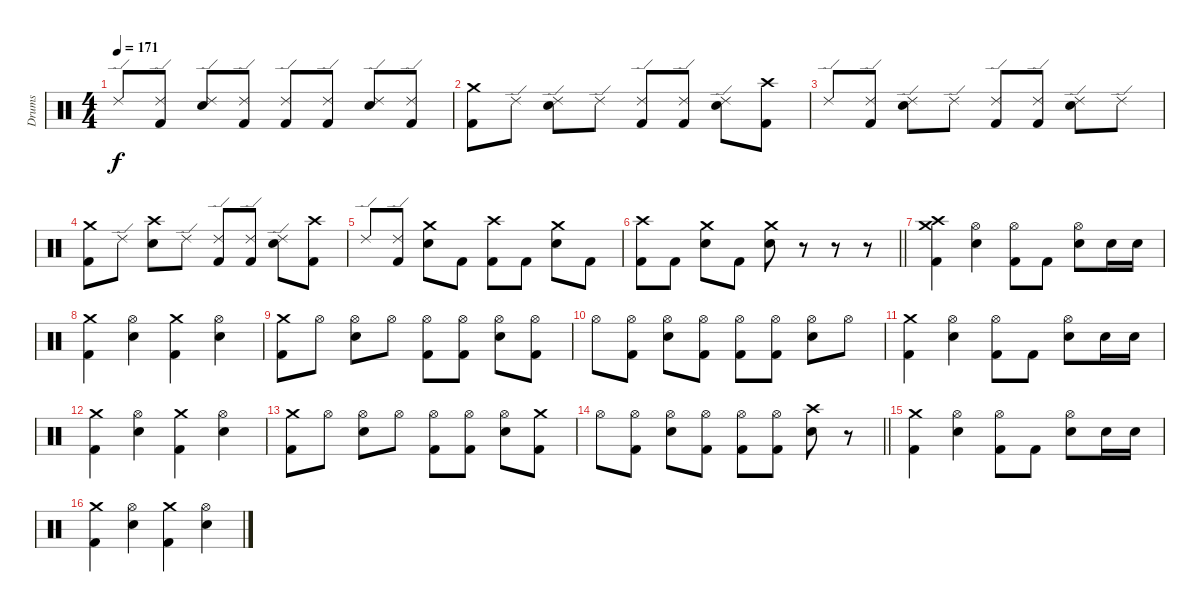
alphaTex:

\track ("Drums" "Drums") {instrument percussion}
\staff {score}
\articulation defaults
\ts (4 4)
\tempo 171
\clef neutral
\ks c "Ride (edge) 2".8{dy f}
("Ride (edge) 2" "Kick (hit) 2").8 ("Ride (edge) 2" "Electric Snare (hit)").8 ("Ride (edge) 2" "Kick (hit) 2").8 ("Ride (edge) 2" "Kick (hit) 2").8 ("Ride (edge) 2" "Kick (hit) 2").8 ("Ride (edge) 2" "Electric Snare (hit)").8 ("Ride (edge) 2" "Kick (hit) 2").8 |
("Crash medium (hit)" "Kick (hit) 2").8 "Ride (edge) 2".8 ("Ride (edge) 2" "Electric Snare (hit)").8 "Ride (edge) 2".8 ("Ride (edge) 2" "Kick (hit) 2").8 ("Ride (edge) 2" "Kick (hit) 2").8 ("Ride (edge) 2" "Electric Snare (hit)").8 ("Crash high (hit)" "Kick (hit) 2").8 |
"Ride (edge) 2".8 ("Ride (edge) 2" "Kick (hit) 2").8 ("Ride (edge) 2" "Electric Snare (hit)").8 "Ride (edge) 2".8 ("Ride (edge) 2" "Kick (hit) 2").8 ("Ride (edge) 2" "Kick (hit) 2").8 ("Ride (edge) 2" "Electric Snare (hit)").8 "Ride (edge) 2".8 |
("Crash medium (hit)" "Kick (hit) 2").8 "Ride (edge) 2".8 ("Crash high (hit)" "Electric Snare (hit)").8 "Ride (edge) 2".8 ("Ride (edge) 2" "Kick (hit) 2").8 ("Ride (edge) 2" "Kick (hit) 2").8 ("Ride (edge) 2" "Electric Snare (hit)").8 ("Crash high (hit)" "Kick (hit) 2").8 |
"Ride (edge) 2".8 ("Ride (edge) 2" "Kick (hit) 2").8 ("Crash medium (hit)" "Electric Snare (hit)").8 "Kick (hit) 2".8 ("Crash high (hit)" "Kick (hit) 2").8 "Kick (hit) 2".8 ("Crash medium (hit)" "Electric Snare (hit)").8 "Kick (hit) 2".8 |
\barLineRight lightlight
("Crash high (hit)" "Kick (hit) 2").8 "Kick (hit) 2".8 ("Crash medium (hit)" "Electric Snare (hit)").8 "Kick (hit) 2".8 ("Crash medium (hit)" "Electric Snare (hit)").8 r.8 r.8 r.8 |
("Crash medium (hit)" "Crash high (hit)" "Kick (hit) 2").4 ("Hi-Hat (open)" "Electric Snare (hit)").4 ("Hi-Hat (open)" "Kick (hit) 2").8 "Kick (hit) 2".8 ("Hi-Hat (open)" "Electric Snare (hit)").8 "Electric Snare (hit)".16 "Electric Snare (hit)".16 |
("Crash medium (hit)" "Kick (hit) 2").4 ("Hi-Hat (open)" "Electric Snare (hit)").4 ("Crash medium (hit)" "Kick (hit) 2").4 ("Hi-Hat (open)" "Electric Snare (hit)").4 |
("Crash medium (hit)" "Kick (hit) 2").8 "Hi-Hat (open)".8 ("Hi-Hat (open)" "Electric Snare (hit)").8 "Hi-Hat (open)".8 ("Hi-Hat (open)" "Kick (hit) 2").8 ("Hi-Hat (open)" "Kick (hit) 2").8 ("Hi-Hat (open)" "Electric Snare (hit)").8 ("Hi-Hat (open)" "Kick (hit) 2").8 |
"Hi-Hat (open)".8 ("Hi-Hat (open)" "Kick (hit) 2").8 ("Hi-Hat (open)" "Electric Snare (hit)").8 ("Hi-Hat (open)" "Kick (hit) 2").8 ("Hi-Hat (open)" "Kick (hit) 2").8 ("Hi-Hat (open)" "Kick (hit) 2").8 ("Hi-Hat (open)" "Electric Snare (hit)").8 "Hi-Hat (open)".8 |
("Crash medium (hit)" "Kick (hit) 2").4 ("Hi-Hat (open)" "Electric Snare (hit)").4 ("Hi-Hat (open)" "Kick (hit) 2").8 "Kick (hit) 2".8 ("Hi-Hat (open)" "Electric Snare (hit)").8 "Electric Snare (hit)".16 "Electric Snare (hit)".16 |
("Crash medium (hit)" "Kick (hit) 2").4 ("Hi-Hat (open)" "Electric Snare (hit)").4 ("Crash medium (hit)" "Kick (hit) 2").4 ("Hi-Hat (open)" "Electric Snare (hit)").4 |
("Crash medium (hit)" "Kick (hit) 2").8 "Hi-Hat (open)".8 ("Hi-Hat (open)" "Electric Snare (hit)").8 "Hi-Hat (open)".8 ("Hi-Hat (open)" "Kick (hit) 2").8 ("Hi-Hat (open)" "Kick (hit) 2").8 ("Hi-Hat (open)" "Electric Snare (hit)").8 ("Crash medium (hit)" "Kick (hit) 2").8 |
\barLineRight lightlight "Hi-Hat (open)".8
("Hi-Hat (open)" "Kick (hit) 2").8 ("Hi-Hat (open)" "Electric Snare (hit)").8 ("Hi-Hat (open)" "Kick (hit) 2").8 ("Hi-Hat (open)" "Kick (hit) 2").8 ("Hi-Hat (open)" "Kick (hit) 2").8 ("Crash high (hit)" "Electric Snare (hit)").8 r.8 |
("Crash medium (hit)" "Kick (hit) 2").4 ("Hi-Hat (open)" "Electric Snare (hit)").4 ("Hi-Hat (open)" "Kick (hit) 2").8 "Kick (hit) 2".8 ("Hi-Hat (open)" "Electric Snare (hit)").8 "Electric Snare (hit)".16 "Electric Snare (hit)".16 |
("Crash medium (hit)" "Kick (hit) 2").4 ("Hi-Hat (open)" "Electric Snare (hit)").4 ("Crash medium (hit)" "Kick (hit) 2").4 ("Hi-Hat (open)" "Electric Snare (hit)").4
